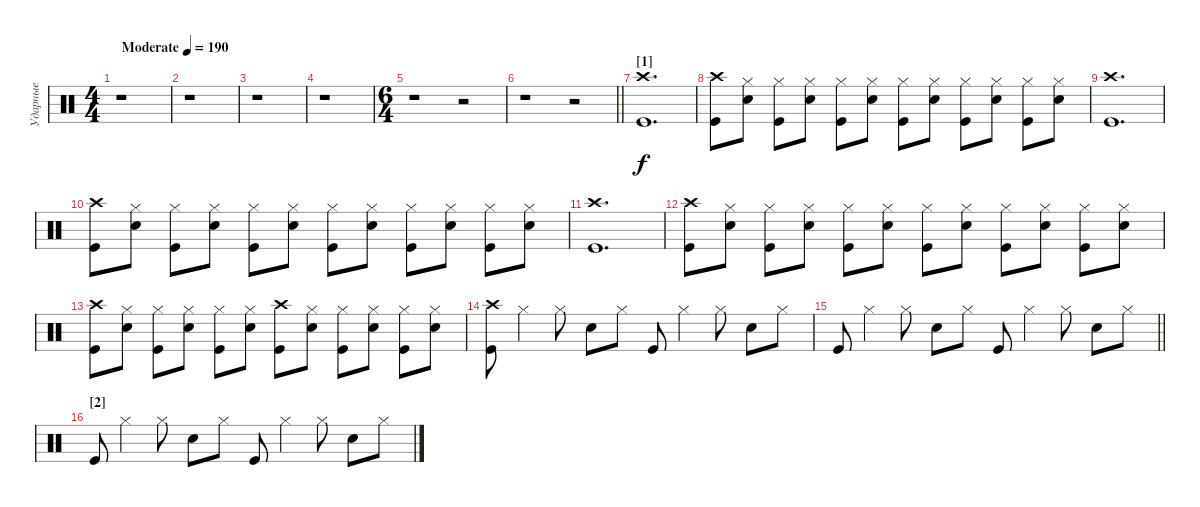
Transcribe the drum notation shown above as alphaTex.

\track ("Ударные" "Ударные") {instrument percussion}
\staff {score}
\articulation defaults
\ts (4 4)
\tempo (190 "Moderate")
\tempo 125
\tempo (190 "Moderate")
\clef neutral
\ks c
r.1{dy f} |
r.1 |
r.1 |
r.1 |
\ts (6 4)
r.1 r.2 |
\barLineRight lightlight
r.1 r.2 |
\section ("" "[1]")
("Crash high (hit)" "Kick (hit)").1{d} |
("Crash high (hit)" "Kick (hit)").8 ("Hi-Hat (closed)" "Electric Snare (hit)").8 ("Hi-Hat (closed)" "Kick (hit)").8 ("Hi-Hat (closed)" "Electric Snare (hit)").8 ("Hi-Hat (closed)" "Kick (hit)").8 ("Hi-Hat (closed)" "Electric Snare (hit)").8 ("Hi-Hat (closed)" "Kick (hit)").8 ("Hi-Hat (closed)" "Electric Snare (hit)").8 ("Hi-Hat (closed)" "Kick (hit)").8 ("Hi-Hat (closed)" "Electric Snare (hit)").8 ("Hi-Hat (closed)" "Kick (hit)").8 ("Hi-Hat (closed)" "Electric Snare (hit)").8 |
("Crash high (hit)" "Kick (hit)").1{d} |
("Crash high (hit)" "Kick (hit)").8 ("Hi-Hat (closed)" "Electric Snare (hit)").8 ("Hi-Hat (closed)" "Kick (hit)").8 ("Hi-Hat (closed)" "Electric Snare (hit)").8 ("Hi-Hat (closed)" "Kick (hit)").8 ("Hi-Hat (closed)" "Electric Snare (hit)").8 ("Hi-Hat (closed)" "Kick (hit)").8 ("Hi-Hat (closed)" "Electric Snare (hit)").8 ("Hi-Hat (closed)" "Kick (hit)").8 ("Hi-Hat (closed)" "Electric Snare (hit)").8 ("Hi-Hat (closed)" "Kick (hit)").8 ("Hi-Hat (closed)" "Electric Snare (hit)").8 |
("Crash high (hit)" "Kick (hit)").1{d} |
("Crash high (hit)" "Kick (hit)").8 ("Hi-Hat (closed)" "Electric Snare (hit)").8 ("Hi-Hat (closed)" "Kick (hit)").8 ("Hi-Hat (closed)" "Electric Snare (hit)").8 ("Hi-Hat (closed)" "Kick (hit)").8 ("Hi-Hat (closed)" "Electric Snare (hit)").8 ("Hi-Hat (closed)" "Kick (hit)").8 ("Hi-Hat (closed)" "Electric Snare (hit)").8 ("Hi-Hat (closed)" "Kick (hit)").8 ("Hi-Hat (closed)" "Electric Snare (hit)").8 ("Hi-Hat (closed)" "Kick (hit)").8 ("Hi-Hat (closed)" "Electric Snare (hit)").8 |
("Crash high (hit)" "Kick (hit)").8 ("Hi-Hat (closed)" "Electric Snare (hit)").8 ("Hi-Hat (closed)" "Kick (hit)").8 ("Hi-Hat (closed)" "Electric Snare (hit)").8 ("Hi-Hat (closed)" "Kick (hit)").8 ("Hi-Hat (closed)" "Electric Snare (hit)").8 ("Crash high (hit)" "Kick (hit)").8 ("Hi-Hat (closed)" "Electric Snare (hit)").8 ("Hi-Hat (closed)" "Kick (hit)").8 ("Hi-Hat (closed)" "Electric Snare (hit)").8 ("Hi-Hat (closed)" "Kick (hit)").8 ("Hi-Hat (closed)" "Electric Snare (hit)").8 |
("Crash high (hit)" "Kick (hit)").8 "Hi-Hat (closed)".4 "Hi-Hat (closed)".8 "Electric Snare (hit)".8 "Hi-Hat (closed)".8 "Kick (hit)".8 "Hi-Hat (closed)".4 "Hi-Hat (closed)".8 "Electric Snare (hit)".8 "Hi-Hat (closed)".8 |
\barLineRight lightlight "Kick (hit)".8 "Hi-Hat (closed)".4 "Hi-Hat (closed)".8 "Electric Snare (hit)".8 "Hi-Hat (closed)".8 "Kick (hit)".8 "Hi-Hat (closed)".4 "Hi-Hat (closed)".8 "Electric Snare (hit)".8 "Hi-Hat (closed)".8
|
\section ("" "[2]")
"Kick (hit)".8 "Hi-Hat (closed)".4 "Hi-Hat (closed)".8 "Electric Snare (hit)".8 "Hi-Hat (closed)".8 "Kick (hit)".8 "Hi-Hat (closed)".4 "Hi-Hat (closed)".8 "Electric Snare (hit)".8 "Hi-Hat (closed)".8
